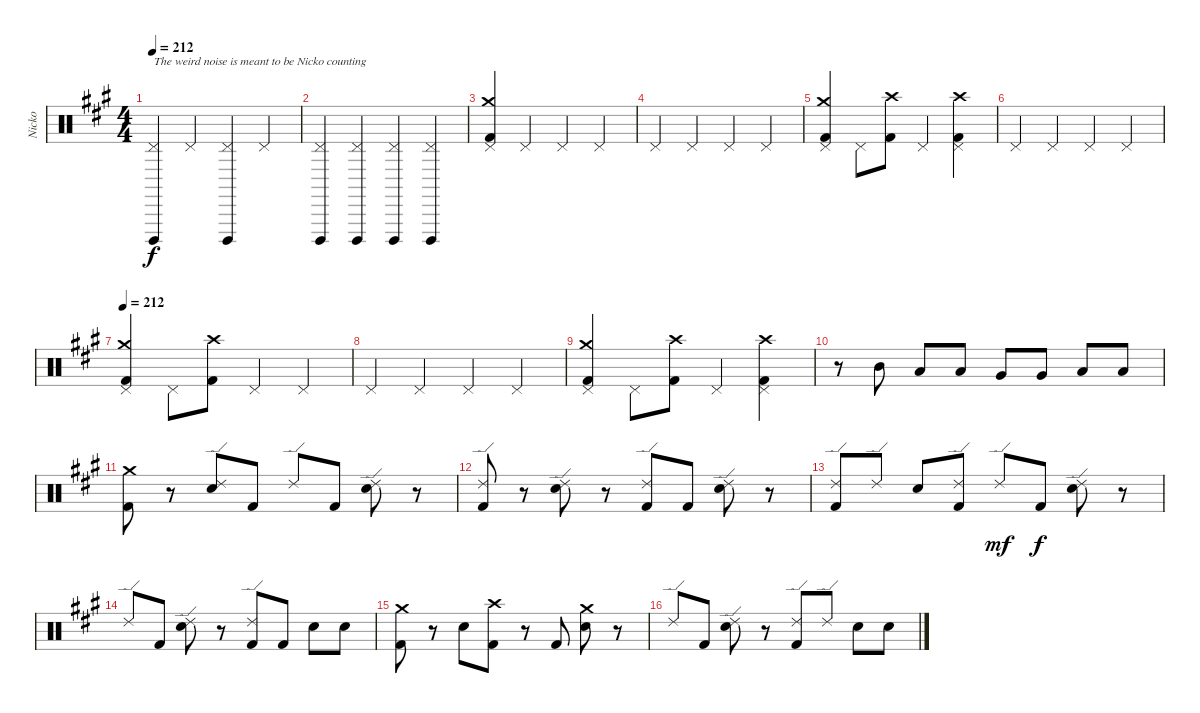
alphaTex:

\track ("Nicko" "Nicko") {instrument percussion}
\staff {score}
\articulation defaults
\ts (4 4)
\tempo 212
\clef neutral
\ks a
("Cuica (open)" "Pedal Hi-Hat (hit)").4{txt "The weird noise is meant to be Nicko counting" dy f} "Pedal Hi-Hat (hit)".4 ("Cuica (open)" "Pedal Hi-Hat (hit)").4 "Pedal Hi-Hat (hit)".4 |
("Cuica (open)" "Pedal Hi-Hat (hit)").4 ("Cuica (open)" "Pedal Hi-Hat (hit)").4 ("Cuica (open)" "Pedal Hi-Hat (hit)").4 ("Cuica (open)" "Pedal Hi-Hat (hit)").4 |
("Crash medium (hit)" "Pedal Hi-Hat (hit)" "Kick (hit) 2").4 "Pedal Hi-Hat (hit)".4 "Pedal Hi-Hat (hit)".4 "Pedal Hi-Hat (hit)".4 |
"Pedal Hi-Hat (hit)".4 "Pedal Hi-Hat (hit)".4 "Pedal Hi-Hat (hit)".4 "Pedal Hi-Hat (hit)".4 |
("Crash medium (hit)" "Pedal Hi-Hat (hit)" "Kick (hit) 2").4 "Pedal Hi-Hat (hit)".8 ("Crash high (hit)" "Kick (hit) 2").8 "Pedal Hi-Hat (hit)".4 ("Crash high (hit)" "Pedal Hi-Hat (hit)" "Kick (hit) 2").4 |
"Pedal Hi-Hat (hit)".4 "Pedal Hi-Hat (hit)".4 "Pedal Hi-Hat (hit)".4 "Pedal Hi-Hat (hit)".4 |
\tempo 212
("Crash medium (hit)" "Pedal Hi-Hat (hit)" "Kick (hit) 2").4 "Pedal Hi-Hat (hit)".8 ("Crash high (hit)" "Kick (hit) 2").8 "Pedal Hi-Hat (hit)".4 "Pedal Hi-Hat (hit)".4 |
"Pedal Hi-Hat (hit)".4 "Pedal Hi-Hat (hit)".4 "Pedal Hi-Hat (hit)".4 "Pedal Hi-Hat (hit)".4 |
("Crash medium (hit)" "Pedal Hi-Hat (hit)" "Kick (hit) 2").4 "Pedal Hi-Hat (hit)".8 ("Crash high (hit)" "Kick (hit) 2").8 "Pedal Hi-Hat (hit)".4 ("Crash high (hit)" "Pedal Hi-Hat (hit)" "Kick (hit) 2").4 |
r.8 "Mid Tom (hit)".8 "Low Tom (hit)".8 "Low Tom (hit)".8 "Very Low Tom (hit)".8 "Very Low Tom (hit)".8 "Low Floor Tom (hit)".8 "Low Floor Tom (hit)".8 |
("Crash medium (hit)" "Kick (hit) 2").8 r.8 ("Ride (edge) 2" "Snare (hit) 2").8 "Kick (hit) 2".8 "Ride (edge) 2".8 "Kick (hit) 2".8 ("Ride (edge) 2" "Snare (hit) 2").8 r.8 |
("Ride (edge) 2" "Kick (hit) 2").8 r.8 ("Ride (edge) 2" "Snare (hit) 2").8 r.8 ("Ride (edge) 2" "Kick (hit) 2").8 "Kick (hit) 2".8 ("Ride (edge) 2" "Snare (hit) 2").8 r.8 |
("Ride (edge) 2" "Kick (hit) 2").8 "Ride (edge) 2".8 "Snare (hit) 2".8 ("Ride (edge) 2" "Kick (hit) 2").8 "Ride (edge) 2".8{dy mf} "Kick (hit) 2".8{dy f} ("Ride (edge) 2" "Snare (hit) 2").8 r.8 |
"Ride (edge) 2".8 "Kick (hit) 2".8 ("Ride (edge) 2" "Snare (hit) 2").8 r.8 ("Ride (edge) 2" "Kick (hit) 2").8 "Kick (hit) 2".8 "Snare (hit) 2".8 "Snare (hit) 2".8 |
("Crash medium (hit)" "Kick (hit) 2").8 r.8 "Snare (hit) 2".8 ("Crash high (hit)" "Kick (hit) 2").8 r.8 "Kick (hit) 2".8 ("Crash medium (hit)" "Snare (hit) 2").8 r.8 |
"Ride (edge) 2".8 "Kick (hit) 2".8 ("Ride (edge) 2" "Snare (hit) 2").8 r.8 ("Ride (edge) 2" "Kick (hit) 2").8 "Ride (edge) 2".8 "Snare (hit) 2".8 "Snare (hit) 2".8
